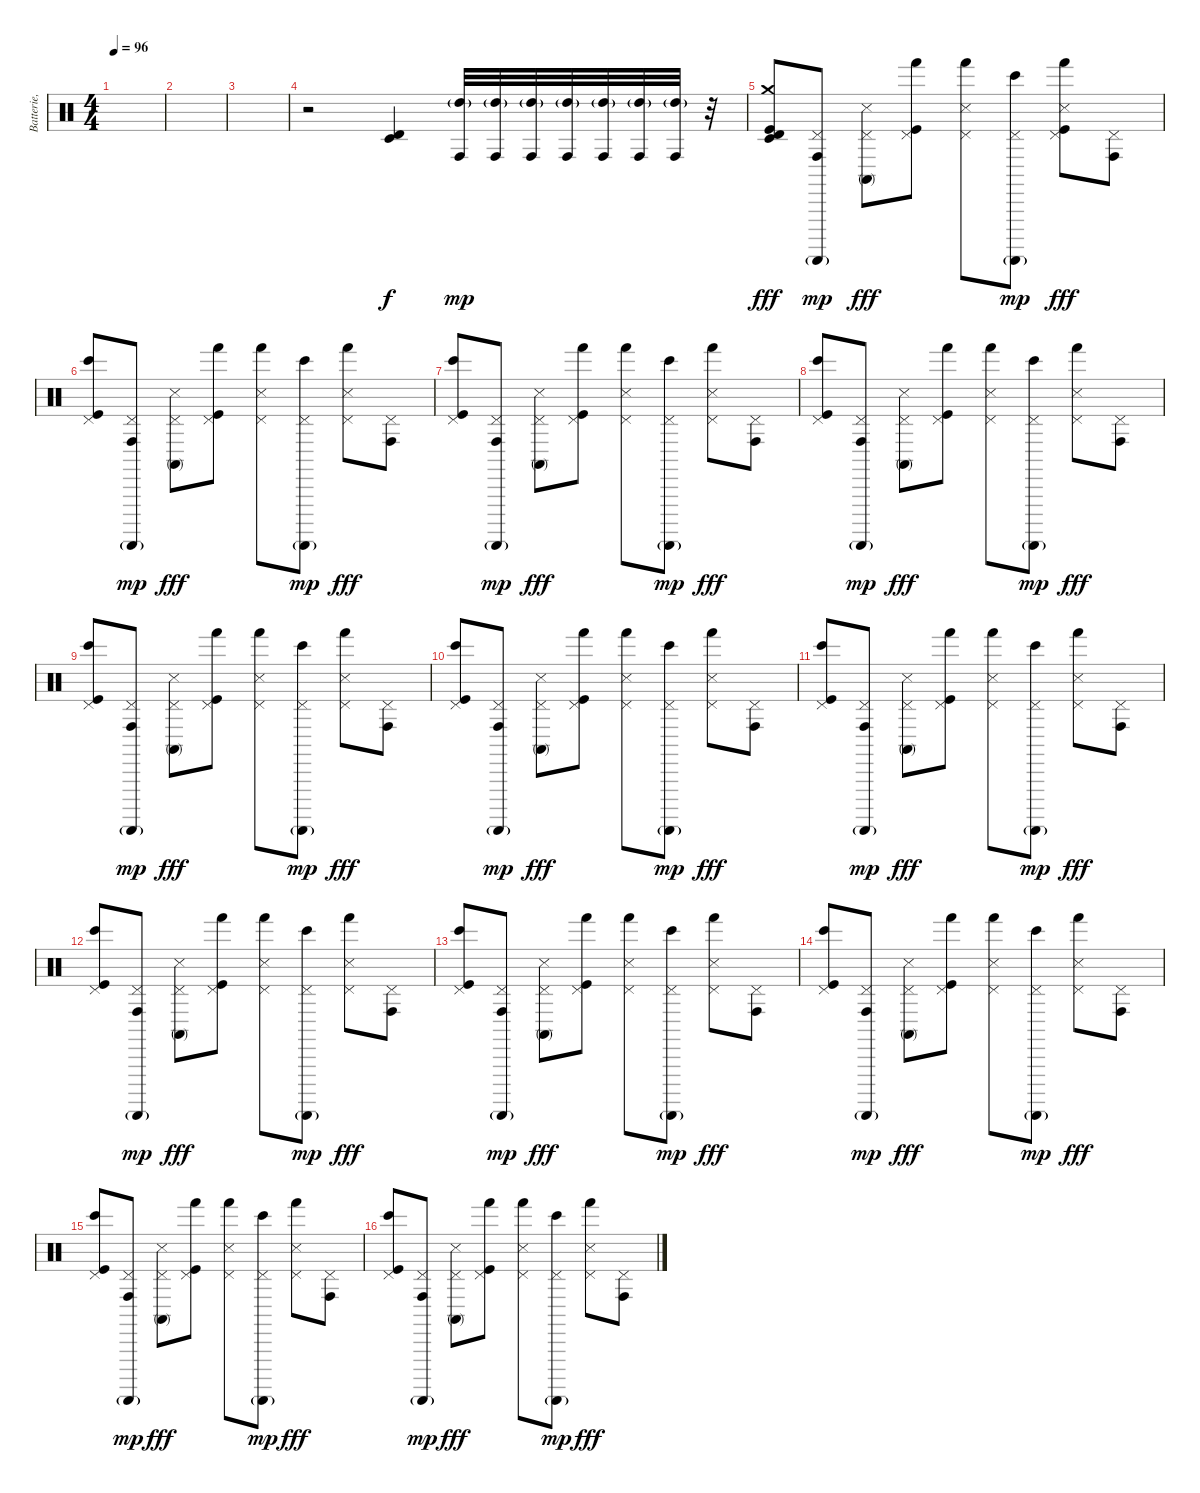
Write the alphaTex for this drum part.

\track ("Batterie, percu." "Batterie, ") {instrument percussion}
\staff {score}
\articulation defaults
\ts (4 4)
\tempo 96
\clef neutral
\ks c
|
|
|
r.2 ("Timbale low (hit)" "Timbale high (hit)").4 ("Conga high (hit)" "High Tom (hit)"{g}).32{dy mp} ("Conga high (hit)" "High Tom (hit)"{g}).32 ("Conga high (hit)" "High Tom (hit)"{g}).32 ("Conga high (hit)" "High Tom (hit)"{g}).32 ("Conga high (hit)" "High Tom (hit)"{g}).32 ("Conga high (hit)" "High Tom (hit)"{g}).32 ("Conga high (hit)" "High Tom (hit)"{g}).32 r.32 |
("Crash medium (hit)" "Timbale low (hit)" "Timbale high (hit)" "Kick (hit)").8{dy fff} ("Pedal Hi-Hat (hit)" "Conga high (hit)" "Guiro (scrap-return)"{g}).8{dy mp} ("Pedal Hi-Hat (hit)" "Conga high (mute)" "Snare (side stick) 3").8{dy fff} ("Pedal Hi-Hat (hit)" "Hand (hit)" "Kick (hit)").8 ("Pedal Hi-Hat (hit)" "Hand (hit)" "Snare (side stick) 3").8 ("Pedal Hi-Hat (hit)" "Bongo High (hit)" "Guiro (scrap-return)"{g}).8{dy mp} ("Pedal Hi-Hat (hit)" "Hand (hit)" "Snare (side stick) 3" "Kick (hit)").8{dy fff} ("Pedal Hi-Hat (hit)" "Conga high (hit)").8 |
("Pedal Hi-Hat (hit)" "Bongo High (hit)" "Kick (hit)").8 ("Pedal Hi-Hat (hit)" "Conga high (hit)" "Guiro (scrap-return)"{g}).8{dy mp} ("Pedal Hi-Hat (hit)" "Conga high (mute)" "Snare (side stick) 3").8{dy fff} ("Pedal Hi-Hat (hit)" "Hand (hit)" "Kick (hit)").8 ("Pedal Hi-Hat (hit)" "Hand (hit)" "Snare (side stick) 3").8 ("Pedal Hi-Hat (hit)" "Bongo High (hit)" "Guiro (scrap-return)"{g}).8{dy mp} ("Pedal Hi-Hat (hit)" "Hand (hit)" "Snare (side stick) 3").8{dy fff} ("Pedal Hi-Hat (hit)" "Conga high (hit)").8 |
("Pedal Hi-Hat (hit)" "Bongo High (hit)" "Kick (hit)").8 ("Pedal Hi-Hat (hit)" "Conga high (hit)" "Guiro (scrap-return)"{g}).8{dy mp} ("Pedal Hi-Hat (hit)" "Conga high (mute)" "Snare (side stick) 3").8{dy fff} ("Pedal Hi-Hat (hit)" "Hand (hit)" "Kick (hit)").8 ("Pedal Hi-Hat (hit)" "Hand (hit)" "Snare (side stick) 3").8 ("Pedal Hi-Hat (hit)" "Bongo High (hit)" "Guiro (scrap-return)"{g}).8{dy mp} ("Pedal Hi-Hat (hit)" "Hand (hit)" "Snare (side stick) 3").8{dy fff} ("Pedal Hi-Hat (hit)" "Conga high (hit)").8 |
("Pedal Hi-Hat (hit)" "Bongo High (hit)" "Kick (hit)").8 ("Pedal Hi-Hat (hit)" "Conga high (hit)" "Guiro (scrap-return)"{g}).8{dy mp} ("Pedal Hi-Hat (hit)" "Conga high (mute)" "Snare (side stick) 3").8{dy fff} ("Pedal Hi-Hat (hit)" "Hand (hit)" "Kick (hit)").8 ("Pedal Hi-Hat (hit)" "Hand (hit)" "Snare (side stick) 3").8 ("Pedal Hi-Hat (hit)" "Bongo High (hit)" "Guiro (scrap-return)"{g}).8{dy mp} ("Pedal Hi-Hat (hit)" "Hand (hit)" "Snare (side stick) 3").8{dy fff} ("Pedal Hi-Hat (hit)" "Conga high (hit)").8 |
("Pedal Hi-Hat (hit)" "Bongo High (hit)" "Kick (hit)").8 ("Pedal Hi-Hat (hit)" "Conga high (hit)" "Guiro (scrap-return)"{g}).8{dy mp} ("Pedal Hi-Hat (hit)" "Conga high (mute)" "Snare (side stick) 3").8{dy fff} ("Pedal Hi-Hat (hit)" "Hand (hit)" "Kick (hit)").8 ("Pedal Hi-Hat (hit)" "Hand (hit)" "Snare (side stick) 3").8 ("Pedal Hi-Hat (hit)" "Bongo High (hit)" "Guiro (scrap-return)"{g}).8{dy mp} ("Pedal Hi-Hat (hit)" "Hand (hit)" "Snare (side stick) 3").8{dy fff} ("Pedal Hi-Hat (hit)" "Conga high (hit)").8 |
("Pedal Hi-Hat (hit)" "Bongo High (hit)" "Kick (hit)").8 ("Pedal Hi-Hat (hit)" "Conga high (hit)" "Guiro (scrap-return)"{g}).8{dy mp} ("Pedal Hi-Hat (hit)" "Conga high (mute)" "Snare (side stick) 3").8{dy fff} ("Pedal Hi-Hat (hit)" "Hand (hit)" "Kick (hit)").8 ("Pedal Hi-Hat (hit)" "Hand (hit)" "Snare (side stick) 3").8 ("Pedal Hi-Hat (hit)" "Bongo High (hit)" "Guiro (scrap-return)"{g}).8{dy mp} ("Pedal Hi-Hat (hit)" "Hand (hit)" "Snare (side stick) 3").8{dy fff} ("Pedal Hi-Hat (hit)" "Conga high (hit)").8 |
("Pedal Hi-Hat (hit)" "Bongo High (hit)" "Kick (hit)").8 ("Pedal Hi-Hat (hit)" "Conga high (hit)" "Guiro (scrap-return)"{g}).8{dy mp} ("Pedal Hi-Hat (hit)" "Conga high (mute)" "Snare (side stick) 3").8{dy fff} ("Pedal Hi-Hat (hit)" "Hand (hit)" "Kick (hit)").8 ("Pedal Hi-Hat (hit)" "Hand (hit)" "Snare (side stick) 3").8 ("Pedal Hi-Hat (hit)" "Bongo High (hit)" "Guiro (scrap-return)"{g}).8{dy mp} ("Pedal Hi-Hat (hit)" "Hand (hit)" "Snare (side stick) 3").8{dy fff} ("Pedal Hi-Hat (hit)" "Conga high (hit)").8 |
("Pedal Hi-Hat (hit)" "Bongo High (hit)" "Kick (hit)").8 ("Pedal Hi-Hat (hit)" "Conga high (hit)" "Guiro (scrap-return)"{g}).8{dy mp} ("Pedal Hi-Hat (hit)" "Conga high (mute)" "Snare (side stick) 3").8{dy fff} ("Pedal Hi-Hat (hit)" "Hand (hit)" "Kick (hit)").8 ("Pedal Hi-Hat (hit)" "Hand (hit)" "Snare (side stick) 3").8 ("Pedal Hi-Hat (hit)" "Bongo High (hit)" "Guiro (scrap-return)"{g}).8{dy mp} ("Pedal Hi-Hat (hit)" "Hand (hit)" "Snare (side stick) 3").8{dy fff} ("Pedal Hi-Hat (hit)" "Conga high (hit)").8 |
("Pedal Hi-Hat (hit)" "Bongo High (hit)" "Kick (hit)").8 ("Pedal Hi-Hat (hit)" "Conga high (hit)" "Guiro (scrap-return)"{g}).8{dy mp} ("Pedal Hi-Hat (hit)" "Conga high (mute)" "Snare (side stick) 3").8{dy fff} ("Pedal Hi-Hat (hit)" "Hand (hit)" "Kick (hit)").8 ("Pedal Hi-Hat (hit)" "Hand (hit)" "Snare (side stick) 3").8 ("Pedal Hi-Hat (hit)" "Bongo High (hit)" "Guiro (scrap-return)"{g}).8{dy mp} ("Pedal Hi-Hat (hit)" "Hand (hit)" "Snare (side stick) 3").8{dy fff} ("Pedal Hi-Hat (hit)" "Conga high (hit)").8 |
("Pedal Hi-Hat (hit)" "Bongo High (hit)" "Kick (hit)").8 ("Pedal Hi-Hat (hit)" "Conga high (hit)" "Guiro (scrap-return)"{g}).8{dy mp} ("Pedal Hi-Hat (hit)" "Conga high (mute)" "Snare (side stick) 3").8{dy fff} ("Pedal Hi-Hat (hit)" "Hand (hit)" "Kick (hit)").8 ("Pedal Hi-Hat (hit)" "Hand (hit)" "Snare (side stick) 3").8 ("Pedal Hi-Hat (hit)" "Bongo High (hit)" "Guiro (scrap-return)"{g}).8{dy mp} ("Pedal Hi-Hat (hit)" "Hand (hit)" "Snare (side stick) 3").8{dy fff} ("Pedal Hi-Hat (hit)" "Conga high (hit)").8 |
("Pedal Hi-Hat (hit)" "Bongo High (hit)" "Kick (hit)").8 ("Pedal Hi-Hat (hit)" "Conga high (hit)" "Guiro (scrap-return)"{g}).8{dy mp} ("Pedal Hi-Hat (hit)" "Conga high (mute)" "Snare (side stick) 3").8{dy fff} ("Pedal Hi-Hat (hit)" "Hand (hit)" "Kick (hit)").8 ("Pedal Hi-Hat (hit)" "Hand (hit)" "Snare (side stick) 3").8 ("Pedal Hi-Hat (hit)" "Bongo High (hit)" "Guiro (scrap-return)"{g}).8{dy mp} ("Pedal Hi-Hat (hit)" "Hand (hit)" "Snare (side stick) 3").8{dy fff} ("Pedal Hi-Hat (hit)" "Conga high (hit)").8 |
("Pedal Hi-Hat (hit)" "Bongo High (hit)" "Kick (hit)").8 ("Pedal Hi-Hat (hit)" "Conga high (hit)" "Guiro (scrap-return)"{g}).8{dy mp} ("Pedal Hi-Hat (hit)" "Conga high (mute)" "Snare (side stick) 3").8{dy fff} ("Pedal Hi-Hat (hit)" "Hand (hit)" "Kick (hit)").8 ("Pedal Hi-Hat (hit)" "Hand (hit)" "Snare (side stick) 3").8 ("Pedal Hi-Hat (hit)" "Bongo High (hit)" "Guiro (scrap-return)"{g}).8{dy mp} ("Pedal Hi-Hat (hit)" "Hand (hit)" "Snare (side stick) 3").8{dy fff} ("Pedal Hi-Hat (hit)" "Conga high (hit)").8
